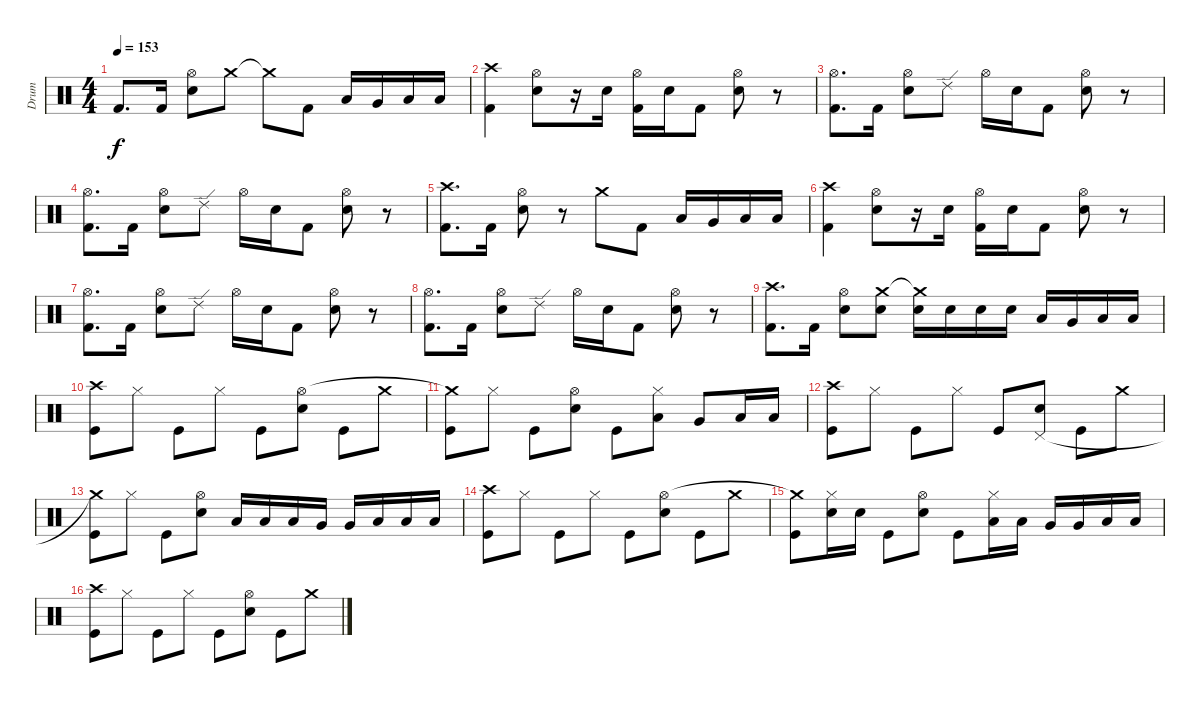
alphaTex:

\track ("Drum" "Drum") {instrument percussion}
\staff {score}
\articulation defaults
\ts (4 4)
\tempo 153
\clef neutral
\ks c "Kick (hit) 2".8{d dy f} "Kick (hit) 2".16
("Hi-Hat (open)" "Snare (hit) 2").8 "Crash medium (hit)".8 "Crash medium (hit)"{t}.8 "Kick (hit) 2".8 "Low Tom (hit)".16 "Very Low Tom (hit)".16 "Low Floor Tom (hit)".16 "Low Floor Tom (hit)".16 |
("Crash high (hit)" "Kick (hit) 2").4 ("Hi-Hat (open)" "Snare (hit) 2").8 r.16 "Snare (hit) 2".16 ("Hi-Hat (open)" "Kick (hit) 2").16 "Snare (hit) 2".16 "Kick (hit) 2".8 ("Hi-Hat (open)" "Snare (hit) 2").8 r.8 |
("Hi-Hat (open)" "Kick (hit) 2").8{d} "Kick (hit) 2".16 ("Hi-Hat (open)" "Snare (hit) 2").8 "Ride (edge) 2".8 "Hi-Hat (open)".16 "Electric Snare (hit)".16 "Kick (hit) 2".8 ("Hi-Hat (open)" "Snare (hit) 2").8 r.8 |
("Hi-Hat (open)" "Kick (hit) 2").8{d} "Kick (hit) 2".16 ("Hi-Hat (open)" "Snare (hit) 2").8 "Ride (edge) 2".8 "Hi-Hat (open)".16 "Electric Snare (hit)".16 "Kick (hit) 2".8 ("Hi-Hat (open)" "Snare (hit) 2").8 r.8 |
("Crash high (hit)" "Kick (hit) 2").8{d} "Kick (hit) 2".16 ("Hi-Hat (open)" "Snare (hit) 2").8 r.8 "Crash medium (hit)".8 "Kick (hit) 2".8 "Low Tom (hit)".16 "Very Low Tom (hit)".16 "Low Floor Tom (hit)".16 "Low Floor Tom (hit)".16 |
("Crash high (hit)" "Kick (hit) 2").4 ("Hi-Hat (open)" "Snare (hit) 2").8 r.16 "Snare (hit) 2".16 ("Hi-Hat (open)" "Kick (hit) 2").16 "Snare (hit) 2".16 "Kick (hit) 2".8 ("Hi-Hat (open)" "Snare (hit) 2").8 r.8 |
("Hi-Hat (open)" "Kick (hit) 2").8{d} "Kick (hit) 2".16 ("Hi-Hat (open)" "Snare (hit) 2").8 "Ride (edge) 2".8 "Hi-Hat (open)".16 "Electric Snare (hit)".16 "Kick (hit) 2".8 ("Hi-Hat (open)" "Snare (hit) 2").8 r.8 |
("Hi-Hat (open)" "Kick (hit) 2").8{d} "Kick (hit) 2".16 ("Hi-Hat (open)" "Snare (hit) 2").8 "Ride (edge) 2".8 "Hi-Hat (open)".16 "Electric Snare (hit)".16 "Kick (hit) 2".8 ("Hi-Hat (open)" "Snare (hit) 2").8 r.8 |
("Crash high (hit)" "Kick (hit) 2").8{d} "Kick (hit) 2".16 ("Hi-Hat (open)" "Snare (hit) 2").8 ("Crash medium (hit)" "Electric Snare (hit)").8 ("Crash medium (hit)"{t} "Electric Snare (hit)").16 "Electric Snare (hit)".16 "Electric Snare (hit)".16 "Electric Snare (hit)".16 "Low Tom (hit)".16 "Very Low Tom (hit)".16 "Low Floor Tom (hit)".16 "Low Floor Tom (hit)".16 |
("Kick (hit)" "Crash high (hit)").8 "Hi-Hat (closed)".8 "Kick (hit)".8 "Hi-Hat (closed)".8 "Kick (hit)".8 ("Snare (hit) 2" "Hi-Hat (open)").8 "Kick (hit)".8 "Crash medium (hit)".8 |
("Kick (hit)" "Crash medium (hit)"{t}).8 "Hi-Hat (closed)".8 "Kick (hit)".8 ("Snare (hit) 2" "Hi-Hat (open)").8 "Kick (hit)".8 ("Hi-Hat (closed)" "Low Tom (hit)").8 "Very Low Tom (hit)".8 "Low Floor Tom (hit)".16 "Low Floor Tom (hit)".16 |
("Kick (hit)" "Crash high (hit)").8 "Hi-Hat (closed)".8 "Kick (hit)".8 "Hi-Hat (closed)".8 "Kick (hit)".8 ("Snare (hit) 2" "Pedal Hi-Hat (hit)").8 "Kick (hit)".8 "Crash medium (hit)".8 |
("Kick (hit)" "Crash medium (hit)"{t}).8 "Hi-Hat (closed)".8 "Kick (hit)".8 ("Snare (hit) 2" "Hi-Hat (open)").8 "Low Tom (hit)".16 "Low Tom (hit)".16 "Low Tom (hit)".16 "Very Low Tom (hit)".16 "Very Low Tom (hit)".16 "Low Floor Tom (hit)".16 "Low Floor Tom (hit)".16 "Low Floor Tom (hit)".16 |
("Kick (hit)" "Crash high (hit)").8 "Hi-Hat (closed)".8 "Kick (hit)".8 "Hi-Hat (closed)".8 "Kick (hit)".8 ("Snare (hit) 2" "Hi-Hat (open)").8 "Kick (hit)".8 "Crash medium (hit)".8 |
("Kick (hit)" "Crash medium (hit)"{t}).8 ("Hi-Hat (closed)" "Snare (hit) 2").16 "Snare (hit) 2".16 "Kick (hit)".8 ("Snare (hit) 2" "Hi-Hat (open)").8 "Kick (hit)".8 ("Hi-Hat (closed)" "Low Tom (hit)").16 "Low Tom (hit)".16 "Very Low Tom (hit)".16 "Very Low Tom (hit)".16 "Low Floor Tom (hit)".16 "Low Floor Tom (hit)".16 |
("Kick (hit)" "Crash high (hit)").8 "Hi-Hat (closed)".8 "Kick (hit)".8 "Hi-Hat (closed)".8 "Kick (hit)".8 ("Snare (hit) 2" "Hi-Hat (open)").8 "Kick (hit)".8 "Crash medium (hit)".8
